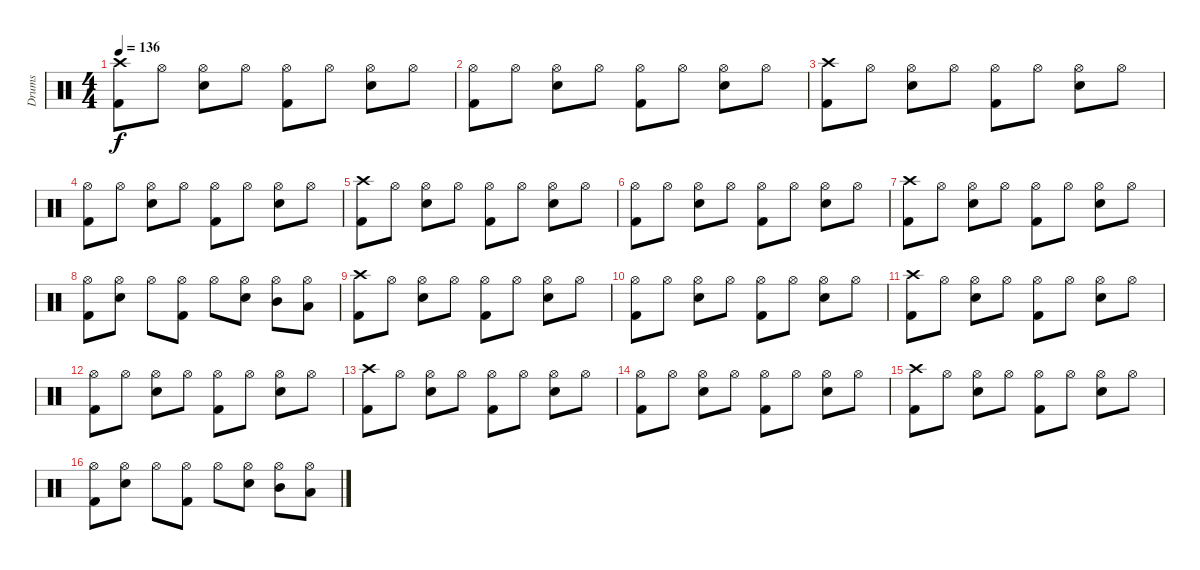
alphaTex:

\track ("Drums" "Drums") {instrument percussion}
\staff {score}
\articulation defaults
\ts (4 4)
\tempo 136
\clef neutral
\ks c
("Crash high (hit)" "Kick (hit) 2").8{dy f} "Hi-Hat (open)".8 ("Hi-Hat (open)" "Snare (hit) 2").8 "Hi-Hat (open)".8 ("Hi-Hat (open)" "Kick (hit) 2").8 "Hi-Hat (open)".8 ("Hi-Hat (open)" "Snare (hit) 2").8 "Hi-Hat (open)".8 |
("Hi-Hat (open)" "Kick (hit) 2").8 "Hi-Hat (open)".8 ("Hi-Hat (open)" "Snare (hit) 2").8 "Hi-Hat (open)".8 ("Hi-Hat (open)" "Kick (hit) 2").8 "Hi-Hat (open)".8 ("Hi-Hat (open)" "Snare (hit) 2").8 "Hi-Hat (open)".8 |
("Crash high (hit)" "Kick (hit) 2").8 "Hi-Hat (open)".8 ("Hi-Hat (open)" "Snare (hit) 2").8 "Hi-Hat (open)".8 ("Hi-Hat (open)" "Kick (hit) 2").8 "Hi-Hat (open)".8 ("Hi-Hat (open)" "Snare (hit) 2").8 "Hi-Hat (open)".8 |
("Hi-Hat (open)" "Kick (hit) 2").8 "Hi-Hat (open)".8 ("Hi-Hat (open)" "Snare (hit) 2").8 "Hi-Hat (open)".8 ("Hi-Hat (open)" "Kick (hit) 2").8 "Hi-Hat (open)".8 ("Hi-Hat (open)" "Snare (hit) 2").8 "Hi-Hat (open)".8 |
("Crash high (hit)" "Kick (hit) 2").8 "Hi-Hat (open)".8 ("Hi-Hat (open)" "Snare (hit) 2").8 "Hi-Hat (open)".8 ("Hi-Hat (open)" "Kick (hit) 2").8 "Hi-Hat (open)".8 ("Hi-Hat (open)" "Snare (hit) 2").8 "Hi-Hat (open)".8 |
("Hi-Hat (open)" "Kick (hit) 2").8 "Hi-Hat (open)".8 ("Hi-Hat (open)" "Snare (hit) 2").8 "Hi-Hat (open)".8 ("Hi-Hat (open)" "Kick (hit) 2").8 "Hi-Hat (open)".8 ("Hi-Hat (open)" "Snare (hit) 2").8 "Hi-Hat (open)".8 |
("Crash high (hit)" "Kick (hit) 2").8 "Hi-Hat (open)".8 ("Hi-Hat (open)" "Snare (hit) 2").8 "Hi-Hat (open)".8 ("Hi-Hat (open)" "Kick (hit) 2").8 "Hi-Hat (open)".8 ("Hi-Hat (open)" "Snare (hit) 2").8 "Hi-Hat (open)".8 |
("Hi-Hat (open)" "Kick (hit) 2").8 ("Hi-Hat (open)" "Snare (hit) 2").8 "Hi-Hat (open)".8 ("Hi-Hat (open)" "Kick (hit) 2").8 "Hi-Hat (open)".8 ("Hi-Hat (open)" "Snare (hit) 2").8 ("Hi-Hat (open)" "Mid Tom (hit)").8 ("Hi-Hat (open)" "Low Tom (hit)").8 |
("Crash high (hit)" "Kick (hit) 2").8 "Hi-Hat (open)".8 ("Hi-Hat (open)" "Snare (hit) 2").8 "Hi-Hat (open)".8 ("Hi-Hat (open)" "Kick (hit) 2").8 "Hi-Hat (open)".8 ("Hi-Hat (open)" "Snare (hit) 2").8 "Hi-Hat (open)".8 |
("Hi-Hat (open)" "Kick (hit) 2").8 "Hi-Hat (open)".8 ("Hi-Hat (open)" "Snare (hit) 2").8 "Hi-Hat (open)".8 ("Hi-Hat (open)" "Kick (hit) 2").8 "Hi-Hat (open)".8 ("Hi-Hat (open)" "Snare (hit) 2").8 "Hi-Hat (open)".8 |
("Crash high (hit)" "Kick (hit) 2").8 "Hi-Hat (open)".8 ("Hi-Hat (open)" "Snare (hit) 2").8 "Hi-Hat (open)".8 ("Hi-Hat (open)" "Kick (hit) 2").8 "Hi-Hat (open)".8 ("Hi-Hat (open)" "Snare (hit) 2").8 "Hi-Hat (open)".8 |
("Hi-Hat (open)" "Kick (hit) 2").8 "Hi-Hat (open)".8 ("Hi-Hat (open)" "Snare (hit) 2").8 "Hi-Hat (open)".8 ("Hi-Hat (open)" "Kick (hit) 2").8 "Hi-Hat (open)".8 ("Hi-Hat (open)" "Snare (hit) 2").8 "Hi-Hat (open)".8 |
("Crash high (hit)" "Kick (hit) 2").8 "Hi-Hat (open)".8 ("Hi-Hat (open)" "Snare (hit) 2").8 "Hi-Hat (open)".8 ("Hi-Hat (open)" "Kick (hit) 2").8 "Hi-Hat (open)".8 ("Hi-Hat (open)" "Snare (hit) 2").8 "Hi-Hat (open)".8 |
("Hi-Hat (open)" "Kick (hit) 2").8 "Hi-Hat (open)".8 ("Hi-Hat (open)" "Snare (hit) 2").8 "Hi-Hat (open)".8 ("Hi-Hat (open)" "Kick (hit) 2").8 "Hi-Hat (open)".8 ("Hi-Hat (open)" "Snare (hit) 2").8 "Hi-Hat (open)".8 |
("Crash high (hit)" "Kick (hit) 2").8 "Hi-Hat (open)".8 ("Hi-Hat (open)" "Snare (hit) 2").8 "Hi-Hat (open)".8 ("Hi-Hat (open)" "Kick (hit) 2").8 "Hi-Hat (open)".8 ("Hi-Hat (open)" "Snare (hit) 2").8 "Hi-Hat (open)".8 |
("Hi-Hat (open)" "Kick (hit) 2").8 ("Hi-Hat (open)" "Snare (hit) 2").8 "Hi-Hat (open)".8 ("Hi-Hat (open)" "Kick (hit) 2").8 "Hi-Hat (open)".8 ("Hi-Hat (open)" "Snare (hit) 2").8 ("Hi-Hat (open)" "Mid Tom (hit)").8 ("Hi-Hat (open)" "Low Tom (hit)").8
